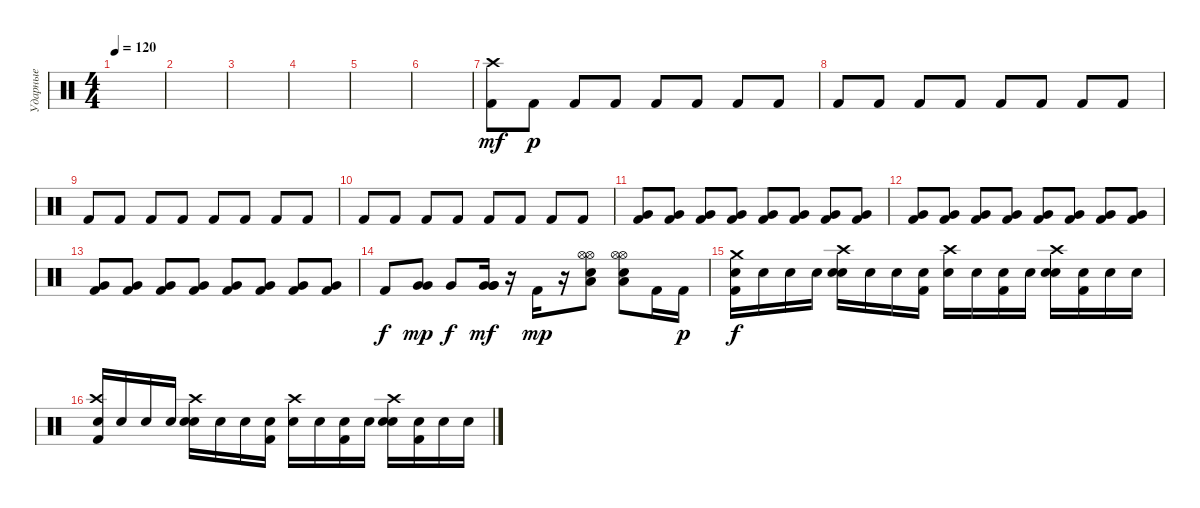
\track ("Ударные" "Ударные") {instrument percussion}
\staff {score}
\articulation defaults
\ts (4 4)
\tempo 120
\clef neutral
\ks c
|
|
|
|
|
|
("Kick (hit) 2" "Crash high (hit)").8{dy mf} "Kick (hit) 2".8{dy p} "Kick (hit) 2".8 "Kick (hit) 2".8 "Kick (hit) 2".8 "Kick (hit) 2".8 "Kick (hit) 2".8 "Kick (hit) 2".8 |
"Kick (hit) 2".8 "Kick (hit) 2".8 "Kick (hit) 2".8 "Kick (hit) 2".8 "Kick (hit) 2".8 "Kick (hit) 2".8 "Kick (hit) 2".8 "Kick (hit) 2".8 |
"Kick (hit) 2".8 "Kick (hit) 2".8 "Kick (hit) 2".8 "Kick (hit) 2".8 "Kick (hit) 2".8 "Kick (hit) 2".8 "Kick (hit) 2".8 "Kick (hit) 2".8 |
"Kick (hit) 2".8 "Kick (hit) 2".8 "Kick (hit) 2".8 "Kick (hit) 2".8 "Kick (hit) 2".8 "Kick (hit) 2".8 "Kick (hit) 2".8 "Kick (hit) 2".8 |
("Kick (hit) 2" "Very Low Tom (hit)").8 ("Kick (hit) 2" "Very Low Tom (hit)").8 ("Kick (hit) 2" "Very Low Tom (hit)").8 ("Kick (hit) 2" "Very Low Tom (hit)").8 ("Kick (hit) 2" "Very Low Tom (hit)").8 ("Kick (hit) 2" "Very Low Tom (hit)").8 ("Kick (hit) 2" "Very Low Tom (hit)").8 ("Kick (hit) 2" "Very Low Tom (hit)").8 |
("Kick (hit) 2" "Very Low Tom (hit)").8 ("Kick (hit) 2" "Very Low Tom (hit)").8 ("Kick (hit) 2" "Very Low Tom (hit)").8 ("Kick (hit) 2" "Very Low Tom (hit)").8 ("Kick (hit) 2" "Very Low Tom (hit)").8 ("Kick (hit) 2" "Very Low Tom (hit)").8 ("Kick (hit) 2" "Very Low Tom (hit)").8 ("Kick (hit) 2" "Very Low Tom (hit)").8 |
("Kick (hit) 2" "Very Low Tom (hit)").8 ("Kick (hit) 2" "Very Low Tom (hit)").8 ("Kick (hit) 2" "Very Low Tom (hit)").8 ("Kick (hit) 2" "Very Low Tom (hit)").8 ("Kick (hit) 2" "Very Low Tom (hit)").8 ("Kick (hit) 2" "Very Low Tom (hit)").8 ("Kick (hit) 2" "Very Low Tom (hit)").8 ("Kick (hit) 2" "Very Low Tom (hit)").8 |
"Kick (hit) 2".8{dy f} ("Very Low Tom (hit)" "Very Low Tom (hit)").8{dy mp} "Very Low Tom (hit)".8{dy f} ("Very Low Tom (hit)" "Very Low Tom (hit)" "Very Low Tom (hit)").16{dy mf} r.16 "Kick (hit) 2".16{dy mp} r.16 ("Hi-Hat (open)" "Hi-Hat (open)" "Low Floor Tom (hit)" "Snare (hit) 2").8 ("Hi-Hat (open)" "Hi-Hat (open)" "Low Floor Tom (hit)" "Snare (hit) 2").8 "Kick (hit) 2".16 "Kick (hit) 2".16{dy p} |
("Crash medium (hit)" "Kick (hit) 2" "Snare (hit)").16{dy f} "Snare (hit)".16 "Snare (hit)".16 "Snare (hit)".16 ("Crash high (hit)" "Snare (hit) 2" "Snare (hit)").16 "Snare (hit)".16 "Snare (hit)".16 ("Kick (hit) 2" "Snare (hit)").16 ("Crash high (hit)" "Snare (hit)").16 "Snare (hit)".16 ("Kick (hit) 2" "Snare (hit)").16 "Snare (hit)".16 ("Crash high (hit)" "Snare (hit) 2" "Snare (hit)").16 ("Kick (hit) 2" "Snare (hit)").16 "Snare (hit)".16 "Snare (hit)".16 |
("Crash high (hit)" "Kick (hit) 2" "Snare (hit)").16 "Snare (hit)".16 "Snare (hit)".16 "Snare (hit)".16 ("Crash high (hit)" "Snare (hit) 2" "Snare (hit)").16 "Snare (hit)".16 "Snare (hit)".16 ("Kick (hit) 2" "Snare (hit)").16 ("Crash high (hit)" "Snare (hit)").16 "Snare (hit)".16 ("Kick (hit) 2" "Snare (hit)").16 "Snare (hit)".16 ("Crash high (hit)" "Snare (hit) 2" "Snare (hit)").16 ("Kick (hit) 2" "Snare (hit)").16 "Snare (hit)".16 "Snare (hit)".16
